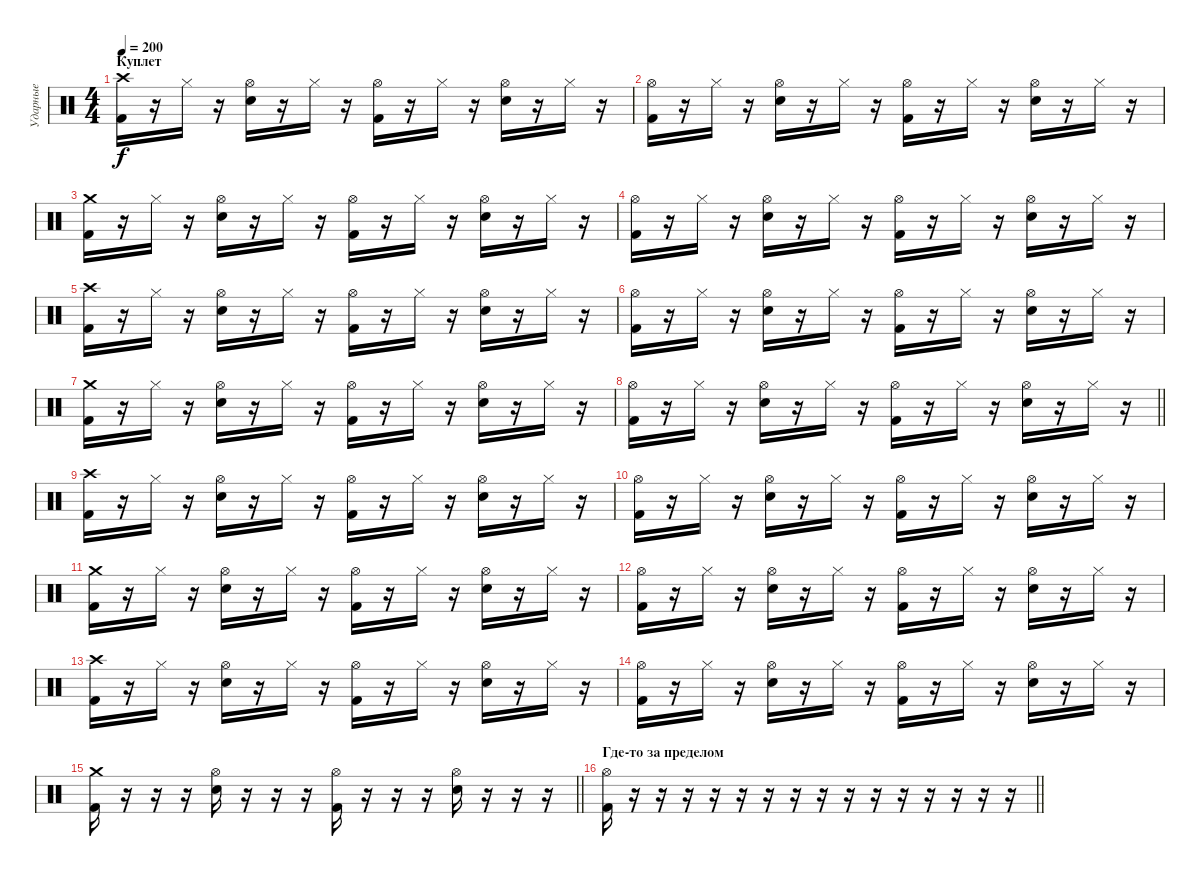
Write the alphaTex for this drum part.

\track ("Ударные" "Ударные") {instrument percussion}
\staff {score}
\articulation defaults
\ts (4 4)
\section ("" "Куплет")
\tempo 200
\clef neutral
\ks c
("Kick (hit) 2" "Crash high (hit)").16{dy f} r.16 "Hi-Hat (closed)".16 r.16 ("Electric Snare (hit)" "Hi-Hat (open)").16 r.16 "Hi-Hat (closed)".16 r.16 ("Kick (hit) 2" "Hi-Hat (open)").16 r.16 "Hi-Hat (closed)".16 r.16 ("Electric Snare (hit)" "Hi-Hat (open)").16 r.16 "Hi-Hat (closed)".16 r.16 |
("Kick (hit) 2" "Hi-Hat (open)").16 r.16 "Hi-Hat (closed)".16 r.16 ("Electric Snare (hit)" "Hi-Hat (open)").16 r.16 "Hi-Hat (closed)".16 r.16 ("Kick (hit) 2" "Hi-Hat (open)").16 r.16 "Hi-Hat (closed)".16 r.16 ("Electric Snare (hit)" "Hi-Hat (open)").16 r.16 "Hi-Hat (closed)".16 r.16 |
("Kick (hit) 2" "Crash medium (hit)").16 r.16 "Hi-Hat (closed)".16 r.16 ("Electric Snare (hit)" "Hi-Hat (open)").16 r.16 "Hi-Hat (closed)".16 r.16 ("Kick (hit) 2" "Hi-Hat (open)").16 r.16 "Hi-Hat (closed)".16 r.16 ("Electric Snare (hit)" "Hi-Hat (open)").16 r.16 "Hi-Hat (closed)".16 r.16 |
("Kick (hit) 2" "Hi-Hat (open)").16 r.16 "Hi-Hat (closed)".16 r.16 ("Electric Snare (hit)" "Hi-Hat (open)").16 r.16 "Hi-Hat (closed)".16 r.16 ("Kick (hit) 2" "Hi-Hat (open)").16 r.16 "Hi-Hat (closed)".16 r.16 ("Electric Snare (hit)" "Hi-Hat (open)").16 r.16 "Hi-Hat (closed)".16 r.16 |
("Kick (hit) 2" "Crash high (hit)").16 r.16 "Hi-Hat (closed)".16 r.16 ("Electric Snare (hit)" "Hi-Hat (open)").16 r.16 "Hi-Hat (closed)".16 r.16 ("Kick (hit) 2" "Hi-Hat (open)").16 r.16 "Hi-Hat (closed)".16 r.16 ("Electric Snare (hit)" "Hi-Hat (open)").16 r.16 "Hi-Hat (closed)".16 r.16 |
("Kick (hit) 2" "Hi-Hat (open)").16 r.16 "Hi-Hat (closed)".16 r.16 ("Electric Snare (hit)" "Hi-Hat (open)").16 r.16 "Hi-Hat (closed)".16 r.16 ("Kick (hit) 2" "Hi-Hat (open)").16 r.16 "Hi-Hat (closed)".16 r.16 ("Electric Snare (hit)" "Hi-Hat (open)").16 r.16 "Hi-Hat (closed)".16 r.16 |
("Kick (hit) 2" "Crash medium (hit)").16 r.16 "Hi-Hat (closed)".16 r.16 ("Electric Snare (hit)" "Hi-Hat (open)").16 r.16 "Hi-Hat (closed)".16 r.16 ("Kick (hit) 2" "Hi-Hat (open)").16 r.16 "Hi-Hat (closed)".16 r.16 ("Electric Snare (hit)" "Hi-Hat (open)").16 r.16 "Hi-Hat (closed)".16 r.16 |
\barLineRight lightlight
("Kick (hit) 2" "Hi-Hat (open)").16 r.16 "Hi-Hat (closed)".16 r.16 ("Electric Snare (hit)" "Hi-Hat (open)").16 r.16 "Hi-Hat (closed)".16 r.16 ("Kick (hit) 2" "Hi-Hat (open)").16 r.16 "Hi-Hat (closed)".16 r.16 ("Electric Snare (hit)" "Hi-Hat (open)").16 r.16 "Hi-Hat (closed)".16 r.16 |
("Kick (hit) 2" "Crash high (hit)").16 r.16 "Hi-Hat (closed)".16 r.16 ("Electric Snare (hit)" "Hi-Hat (open)").16 r.16 "Hi-Hat (closed)".16 r.16 ("Kick (hit) 2" "Hi-Hat (open)").16 r.16 "Hi-Hat (closed)".16 r.16 ("Electric Snare (hit)" "Hi-Hat (open)").16 r.16 "Hi-Hat (closed)".16 r.16 |
("Kick (hit) 2" "Hi-Hat (open)").16 r.16 "Hi-Hat (closed)".16 r.16 ("Electric Snare (hit)" "Hi-Hat (open)").16 r.16 "Hi-Hat (closed)".16 r.16 ("Kick (hit) 2" "Hi-Hat (open)").16 r.16 "Hi-Hat (closed)".16 r.16 ("Electric Snare (hit)" "Hi-Hat (open)").16 r.16 "Hi-Hat (closed)".16 r.16 |
("Kick (hit) 2" "Crash medium (hit)").16 r.16 "Hi-Hat (closed)".16 r.16 ("Electric Snare (hit)" "Hi-Hat (open)").16 r.16 "Hi-Hat (closed)".16 r.16 ("Kick (hit) 2" "Hi-Hat (open)").16 r.16 "Hi-Hat (closed)".16 r.16 ("Electric Snare (hit)" "Hi-Hat (open)").16 r.16 "Hi-Hat (closed)".16 r.16 |
("Kick (hit) 2" "Hi-Hat (open)").16 r.16 "Hi-Hat (closed)".16 r.16 ("Electric Snare (hit)" "Hi-Hat (open)").16 r.16 "Hi-Hat (closed)".16 r.16 ("Kick (hit) 2" "Hi-Hat (open)").16 r.16 "Hi-Hat (closed)".16 r.16 ("Electric Snare (hit)" "Hi-Hat (open)").16 r.16 "Hi-Hat (closed)".16 r.16 |
("Kick (hit) 2" "Crash high (hit)").16 r.16 "Hi-Hat (closed)".16 r.16 ("Electric Snare (hit)" "Hi-Hat (open)").16 r.16 "Hi-Hat (closed)".16 r.16 ("Kick (hit) 2" "Hi-Hat (open)").16 r.16 "Hi-Hat (closed)".16 r.16 ("Electric Snare (hit)" "Hi-Hat (open)").16 r.16 "Hi-Hat (closed)".16 r.16 |
("Kick (hit) 2" "Hi-Hat (open)").16 r.16 "Hi-Hat (closed)".16 r.16 ("Electric Snare (hit)" "Hi-Hat (open)").16 r.16 "Hi-Hat (closed)".16 r.16 ("Kick (hit) 2" "Hi-Hat (open)").16 r.16 "Hi-Hat (closed)".16 r.16 ("Electric Snare (hit)" "Hi-Hat (open)").16 r.16 "Hi-Hat (closed)".16 r.16 |
\barLineRight lightlight
("Kick (hit) 2" "Crash medium (hit)").16 r.16 r.16 r.16 ("Electric Snare (hit)" "Hi-Hat (open)").16 r.16 r.16 r.16 ("Kick (hit) 2" "Hi-Hat (open)").16 r.16 r.16 r.16 ("Electric Snare (hit)" "Hi-Hat (open)").16 r.16 r.16 r.16 |
\section ("" "Где-то за пределом")
\barLineRight lightlight
("Kick (hit) 2" "Hi-Hat (open)").16 r.16 r.16 r.16 r.16 r.16 r.16 r.16 r.16 r.16 r.16 r.16 r.16 r.16 r.16 r.16
